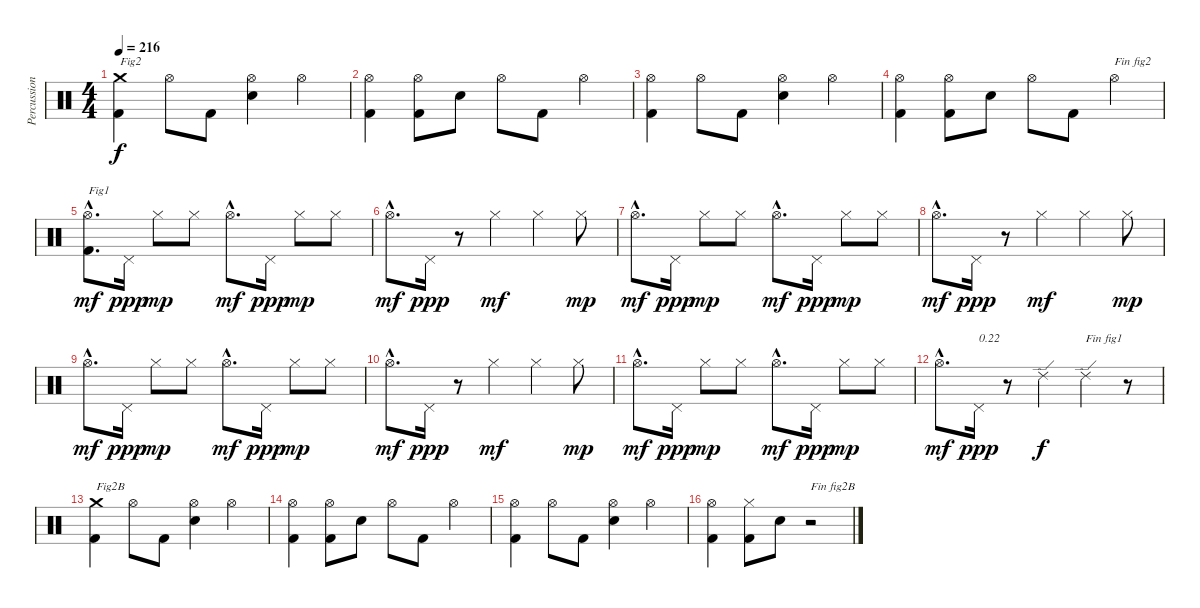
\track ("Percussion" "Percussion") {instrument percussion}
\staff {score}
\articulation defaults
\ts (4 4)
\tempo 216
\clef neutral
\ks c
("Kick (hit) 2" "Crash medium (hit)").4{txt "Fig2" dy f} "Hi-Hat (open)".8 "Kick (hit) 2".8 ("Electric Snare (hit)" "Hi-Hat (open)").4 "Hi-Hat (open)".4 |
("Kick (hit) 2" "Hi-Hat (open)").4 ("Kick (hit) 2" "Hi-Hat (open)").8 "Electric Snare (hit)".8 "Hi-Hat (open)".8 "Kick (hit) 2".8 "Hi-Hat (open)".4 |
("Kick (hit) 2" "Hi-Hat (open)").4 "Hi-Hat (open)".8 "Kick (hit) 2".8 ("Electric Snare (hit)" "Hi-Hat (open)").4 "Hi-Hat (open)".4 |
("Kick (hit) 2" "Hi-Hat (open)").4 ("Kick (hit) 2" "Hi-Hat (open)").8 "Electric Snare (hit)".8 "Hi-Hat (open)".8 "Kick (hit) 2".8 "Hi-Hat (open)".4{txt "Fin fig2"} |
("Kick (hit) 2"{hac} "Hi-Hat (open)"{hac}).8{d txt "Fig1" dy mf} "Pedal Hi-Hat (hit)".16{dy ppp} "Hi-Hat (closed)".8{dy mp} "Hi-Hat (closed)".8 "Hi-Hat (open)"{hac}.8{d dy mf} "Pedal Hi-Hat (hit)".16{dy ppp} "Hi-Hat (closed)".8{dy mp} "Hi-Hat (closed)".8 |
"Hi-Hat (open)"{hac}.8{d dy mf} "Pedal Hi-Hat (hit)".16{dy ppp} r.8 "Hi-Hat (closed)".4{dy mf} "Hi-Hat (closed)".4 "Hi-Hat (closed)".8{dy mp} |
"Hi-Hat (open)"{hac}.8{d dy mf} "Pedal Hi-Hat (hit)".16{dy ppp} "Hi-Hat (closed)".8{dy mp} "Hi-Hat (closed)".8 "Hi-Hat (open)"{hac}.8{d dy mf} "Pedal Hi-Hat (hit)".16{dy ppp} "Hi-Hat (closed)".8{dy mp} "Hi-Hat (closed)".8 |
"Hi-Hat (open)"{hac}.8{d dy mf} "Pedal Hi-Hat (hit)".16{dy ppp} r.8 "Hi-Hat (closed)".4{dy mf} "Hi-Hat (closed)".4 "Hi-Hat (closed)".8{dy mp} |
"Hi-Hat (open)"{hac}.8{d dy mf} "Pedal Hi-Hat (hit)".16{dy ppp} "Hi-Hat (closed)".8{dy mp} "Hi-Hat (closed)".8 "Hi-Hat (open)"{hac}.8{d dy mf} "Pedal Hi-Hat (hit)".16{dy ppp} "Hi-Hat (closed)".8{dy mp} "Hi-Hat (closed)".8 |
"Hi-Hat (open)"{hac}.8{d dy mf} "Pedal Hi-Hat (hit)".16{dy ppp} r.8 "Hi-Hat (closed)".4{dy mf} "Hi-Hat (closed)".4 "Hi-Hat (closed)".8{dy mp} |
"Hi-Hat (open)"{hac}.8{d dy mf} "Pedal Hi-Hat (hit)".16{dy ppp} "Hi-Hat (closed)".8{dy mp} "Hi-Hat (closed)".8 "Hi-Hat (open)"{hac}.8{d dy mf} "Pedal Hi-Hat (hit)".16{dy ppp} "Hi-Hat (closed)".8{dy mp} "Hi-Hat (closed)".8 |
"Hi-Hat (open)"{hac}.8{d dy mf} "Pedal Hi-Hat (hit)".16{txt "0.22" dy ppp} r.8 "Ride (edge) 2".4{dy f} "Ride (edge) 2".4{txt "Fin fig1"} r.8 |
("Kick (hit) 2" "Crash medium (hit)").4{txt "Fig2B"} "Hi-Hat (open)".8 "Kick (hit) 2".8 ("Electric Snare (hit)" "Hi-Hat (open)").4 "Hi-Hat (open)".4 |
("Kick (hit) 2" "Hi-Hat (open)").4 ("Kick (hit) 2" "Hi-Hat (open)").8 "Electric Snare (hit)".8 "Hi-Hat (open)".8 "Kick (hit) 2".8 "Hi-Hat (open)".4 |
("Kick (hit) 2" "Hi-Hat (open)").4 "Hi-Hat (open)".8 "Kick (hit) 2".8 ("Electric Snare (hit)" "Hi-Hat (open)").4 "Hi-Hat (open)".4 |
("Kick (hit) 2" "Hi-Hat (open)").4 ("Kick (hit) 2" "Hi-Hat (closed)").8 "Electric Snare (hit)".8 r.2{txt "Fin fig2B"}
